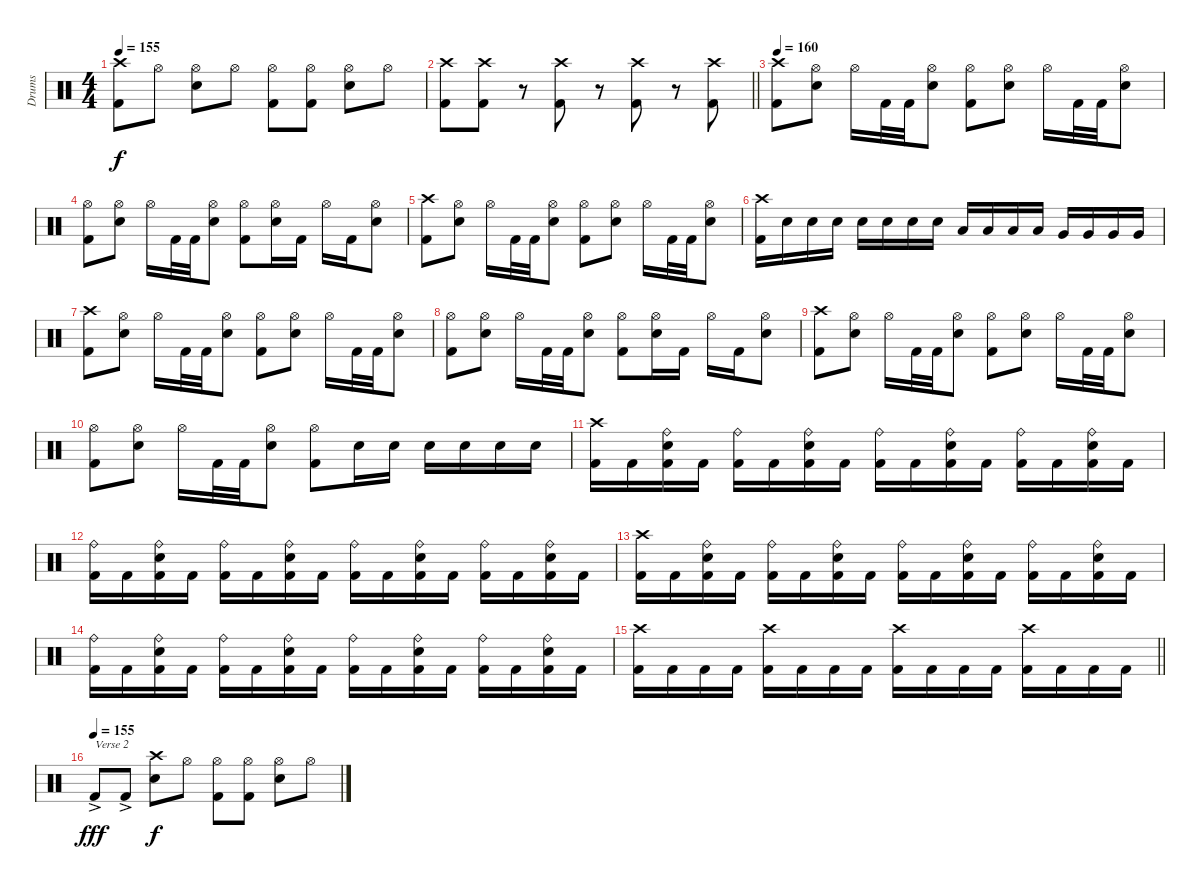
\track ("Drums" "Drums") {instrument percussion}
\staff {score}
\articulation defaults
\ts (4 4)
\tempo 155
\clef neutral
\ks c
("Crash high (hit)" "Kick (hit) 2").8{dy f} "Hi-Hat (open)".8 ("Hi-Hat (open)" "Snare (hit) 2").8 "Hi-Hat (open)".8 ("Hi-Hat (open)" "Kick (hit) 2").8 ("Hi-Hat (open)" "Kick (hit) 2").8 ("Hi-Hat (open)" "Snare (hit) 2").8 "Hi-Hat (open)".8 |
\barLineRight lightlight
("Crash high (hit)" "Kick (hit) 2").8 ("Crash high (hit)" "Kick (hit) 2").8 r.8{volume 0} ("Crash high (hit)" "Kick (hit) 2").8{volume 16} r.8{volume 0} ("Crash high (hit)" "Kick (hit) 2").8{volume 16} r.8{volume 0} ("Crash high (hit)" "Kick (hit) 2").8{volume 16} |
\tempo 160
("Crash high (hit)" "Kick (hit) 2").8 ("Hi-Hat (open)" "Snare (hit) 2").8 "Hi-Hat (open)".16 "Kick (hit) 2".32 "Kick (hit) 2".32 ("Hi-Hat (open)" "Snare (hit) 2").8 ("Hi-Hat (open)" "Kick (hit) 2").8 ("Hi-Hat (open)" "Snare (hit) 2").8 "Hi-Hat (open)".16 "Kick (hit) 2".32 "Kick (hit) 2".32 ("Hi-Hat (open)" "Snare (hit) 2").8 |
("Hi-Hat (open)" "Kick (hit) 2").8 ("Hi-Hat (open)" "Snare (hit) 2").8 "Hi-Hat (open)".16 "Kick (hit) 2".32 "Kick (hit) 2".32 ("Hi-Hat (open)" "Snare (hit) 2").8 ("Hi-Hat (open)" "Kick (hit) 2").8 ("Hi-Hat (open)" "Snare (hit) 2").16 "Kick (hit) 2".16 "Hi-Hat (open)".16 "Kick (hit) 2".16 ("Hi-Hat (open)" "Snare (hit) 2").8 |
("Crash high (hit)" "Kick (hit) 2").8 ("Hi-Hat (open)" "Snare (hit) 2").8 "Hi-Hat (open)".16 "Kick (hit) 2".32 "Kick (hit) 2".32 ("Hi-Hat (open)" "Snare (hit) 2").8 ("Hi-Hat (open)" "Kick (hit) 2").8 ("Hi-Hat (open)" "Snare (hit) 2").8 "Hi-Hat (open)".16 "Kick (hit) 2".32 "Kick (hit) 2".32 ("Hi-Hat (open)" "Snare (hit) 2").8 |
("Crash high (hit)" "Kick (hit) 2").16 "Snare (hit) 2".16 "Snare (hit) 2".16 "Snare (hit) 2".16 "Snare (hit) 2".16 "Snare (hit) 2".16 "Snare (hit) 2".16 "Snare (hit) 2".16 "Low Tom (hit)".16 "Low Tom (hit)".16 "Low Tom (hit)".16 "Low Tom (hit)".16 "Very Low Tom (hit)".16 "Very Low Tom (hit)".16 "Very Low Tom (hit)".16 "Very Low Tom (hit)".16 |
("Crash high (hit)" "Kick (hit) 2").8 ("Hi-Hat (open)" "Snare (hit) 2").8 "Hi-Hat (open)".16 "Kick (hit) 2".32 "Kick (hit) 2".32 ("Hi-Hat (open)" "Snare (hit) 2").8 ("Hi-Hat (open)" "Kick (hit) 2").8 ("Hi-Hat (open)" "Snare (hit) 2").8 "Hi-Hat (open)".16 "Kick (hit) 2".32 "Kick (hit) 2".32 ("Hi-Hat (open)" "Snare (hit) 2").8 |
("Hi-Hat (open)" "Kick (hit) 2").8 ("Hi-Hat (open)" "Snare (hit) 2").8 "Hi-Hat (open)".16 "Kick (hit) 2".32 "Kick (hit) 2".32 ("Hi-Hat (open)" "Snare (hit) 2").8 ("Hi-Hat (open)" "Kick (hit) 2").8 ("Hi-Hat (open)" "Snare (hit) 2").16 "Kick (hit) 2".16 "Hi-Hat (open)".16 "Kick (hit) 2".16 ("Hi-Hat (open)" "Snare (hit) 2").8 |
("Crash high (hit)" "Kick (hit) 2").8 ("Hi-Hat (open)" "Snare (hit) 2").8 "Hi-Hat (open)".16 "Kick (hit) 2".32 "Kick (hit) 2".32 ("Hi-Hat (open)" "Snare (hit) 2").8 ("Hi-Hat (open)" "Kick (hit) 2").8 ("Hi-Hat (open)" "Snare (hit) 2").8 "Hi-Hat (open)".16 "Kick (hit) 2".32 "Kick (hit) 2".32 ("Hi-Hat (open)" "Snare (hit) 2").8 |
("Hi-Hat (open)" "Kick (hit) 2").8 ("Hi-Hat (open)" "Snare (hit) 2").8 "Hi-Hat (open)".16 "Kick (hit) 2".32 "Kick (hit) 2".32 ("Hi-Hat (open)" "Snare (hit) 2").8 ("Hi-Hat (open)" "Kick (hit) 2").8 "Snare (hit) 2".16 "Snare (hit) 2".16 "Snare (hit) 2".16 "Snare (hit) 2".16 "Snare (hit) 2".16 "Snare (hit) 2".16 |
("Crash high (hit)" "Kick (hit) 2").16 "Kick (hit) 2".16 ("Ride (bell)" "Snare (hit) 2" "Kick (hit) 2").16 "Kick (hit) 2".16 ("Ride (bell)" "Kick (hit) 2").16 "Kick (hit) 2".16 ("Ride (bell)" "Snare (hit) 2" "Kick (hit) 2").16 "Kick (hit) 2".16 ("Ride (bell)" "Kick (hit) 2").16 "Kick (hit) 2".16 ("Ride (bell)" "Snare (hit) 2" "Kick (hit) 2").16 "Kick (hit) 2".16 ("Ride (bell)" "Kick (hit) 2").16 "Kick (hit) 2".16 ("Ride (bell)" "Snare (hit) 2" "Kick (hit) 2").16 "Kick (hit) 2".16 |
("Ride (bell)" "Kick (hit) 2").16 "Kick (hit) 2".16 ("Ride (bell)" "Snare (hit) 2" "Kick (hit) 2").16 "Kick (hit) 2".16 ("Ride (bell)" "Kick (hit) 2").16 "Kick (hit) 2".16 ("Ride (bell)" "Snare (hit) 2" "Kick (hit) 2").16 "Kick (hit) 2".16 ("Ride (bell)" "Kick (hit) 2").16 "Kick (hit) 2".16 ("Ride (bell)" "Snare (hit) 2" "Kick (hit) 2").16 "Kick (hit) 2".16 ("Ride (bell)" "Kick (hit) 2").16 "Kick (hit) 2".16 ("Ride (bell)" "Snare (hit) 2" "Kick (hit) 2").16 "Kick (hit) 2".16 |
("Crash high (hit)" "Kick (hit) 2").16 "Kick (hit) 2".16 ("Ride (bell)" "Snare (hit) 2" "Kick (hit) 2").16 "Kick (hit) 2".16 ("Ride (bell)" "Kick (hit) 2").16 "Kick (hit) 2".16 ("Ride (bell)" "Snare (hit) 2" "Kick (hit) 2").16 "Kick (hit) 2".16 ("Ride (bell)" "Kick (hit) 2").16 "Kick (hit) 2".16 ("Ride (bell)" "Snare (hit) 2" "Kick (hit) 2").16 "Kick (hit) 2".16 ("Ride (bell)" "Kick (hit) 2").16 "Kick (hit) 2".16 ("Ride (bell)" "Snare (hit) 2" "Kick (hit) 2").16 "Kick (hit) 2".16 |
("Ride (bell)" "Kick (hit) 2").16 "Kick (hit) 2".16 ("Ride (bell)" "Snare (hit) 2" "Kick (hit) 2").16 "Kick (hit) 2".16 ("Ride (bell)" "Kick (hit) 2").16 "Kick (hit) 2".16 ("Ride (bell)" "Snare (hit) 2" "Kick (hit) 2").16 "Kick (hit) 2".16 ("Ride (bell)" "Kick (hit) 2").16 "Kick (hit) 2".16 ("Ride (bell)" "Snare (hit) 2" "Kick (hit) 2").16 "Kick (hit) 2".16 ("Ride (bell)" "Kick (hit) 2").16 "Kick (hit) 2".16 ("Ride (bell)" "Snare (hit) 2" "Kick (hit) 2").16 "Kick (hit) 2".16 |
\barLineRight lightlight
("Crash high (hit)" "Kick (hit) 2").16 "Kick (hit) 2".16 "Kick (hit) 2".16 "Kick (hit) 2".16 ("Crash high (hit)" "Kick (hit) 2").16 "Kick (hit) 2".16 "Kick (hit) 2".16 "Kick (hit) 2".16 ("Crash high (hit)" "Kick (hit) 2").16 "Kick (hit) 2".16 "Kick (hit) 2".16 "Kick (hit) 2".16 ("Crash high (hit)" "Kick (hit) 2").16 "Kick (hit) 2".16 "Kick (hit) 2".16 "Kick (hit) 2".16 |
\tempo (155)
"Kick (hit) 2"{ac}.8{txt "Verse 2" dy fff} "Kick (hit) 2"{ac}.8 ("Crash high (hit)" "Snare (hit) 2").8{dy f} "Hi-Hat (open)".8 ("Hi-Hat (open)" "Kick (hit) 2").8 ("Hi-Hat (open)" "Kick (hit) 2").8 ("Hi-Hat (open)" "Snare (hit) 2").8 "Hi-Hat (open)".8
